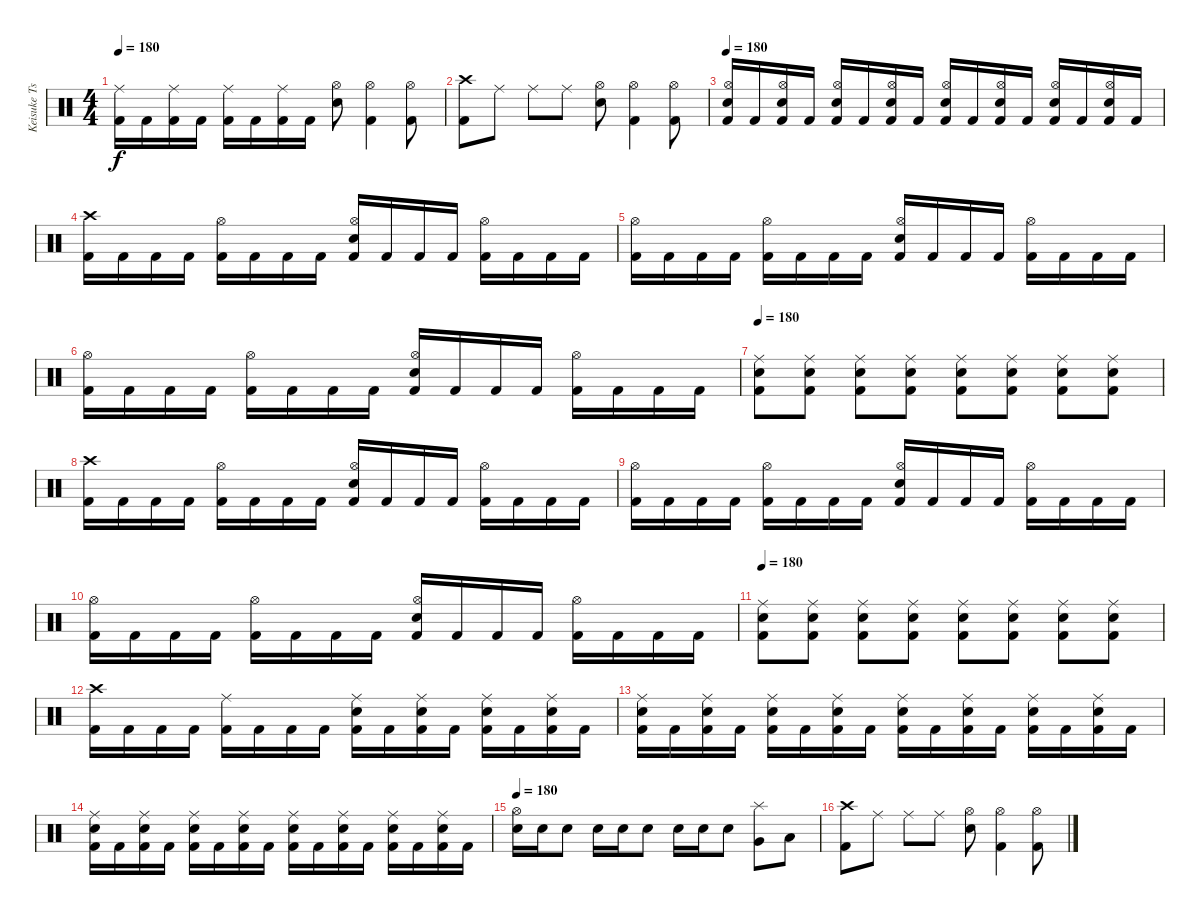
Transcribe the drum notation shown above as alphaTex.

\track ("Keisuke Tsuboi" "Keisuke Ts") {instrument percussion}
\staff {score}
\articulation defaults
\ts (4 4)
\tempo 180
\clef neutral
\ks c
("Ride (middle)" "Kick (hit) 2").16{dy f} "Kick (hit) 2".16 ("Ride (middle)" "Kick (hit) 2").16 "Kick (hit) 2".16 ("Ride (middle)" "Kick (hit) 2").16 "Kick (hit) 2".16 ("Ride (middle)" "Kick (hit) 2").16 "Kick (hit) 2".16 ("Hi-Hat (open)" "Electric Snare (hit)").8 ("Hi-Hat (open)" "Kick (hit) 2").4 ("Hi-Hat (open)" "Kick (hit) 2").8 |
("Crash high (hit)" "Kick (hit) 2").8 "Ride (middle)".8 "Ride (middle)".8 "Ride (middle)".8 ("Hi-Hat (open)" "Electric Snare (hit)").8 ("Hi-Hat (open)" "Kick (hit) 2").4 ("Hi-Hat (open)" "Kick (hit) 2").8 |
\tempo 180
("Hi-Hat (open)" "Electric Snare (hit)" "Kick (hit) 2").16 "Kick (hit) 2".16 ("Hi-Hat (open)" "Electric Snare (hit)" "Kick (hit) 2").16 "Kick (hit) 2".16 ("Hi-Hat (open)" "Electric Snare (hit)" "Kick (hit) 2").16 "Kick (hit) 2".16 ("Hi-Hat (open)" "Electric Snare (hit)" "Kick (hit) 2").16 "Kick (hit) 2".16 ("Hi-Hat (open)" "Electric Snare (hit)" "Kick (hit) 2").16 "Kick (hit) 2".16 ("Hi-Hat (open)" "Electric Snare (hit)" "Kick (hit) 2").16 "Kick (hit) 2".16 ("Hi-Hat (open)" "Electric Snare (hit)" "Kick (hit) 2").16 "Kick (hit) 2".16 ("Hi-Hat (open)" "Electric Snare (hit)" "Kick (hit) 2").16 "Kick (hit) 2".16 |
("Crash high (hit)" "Kick (hit) 2").16 "Kick (hit) 2".16 "Kick (hit) 2".16 "Kick (hit) 2".16 ("Hi-Hat (open)" "Kick (hit) 2").16 "Kick (hit) 2".16 "Kick (hit) 2".16 "Kick (hit) 2".16 ("Hi-Hat (open)" "Electric Snare (hit)" "Kick (hit) 2").16 "Kick (hit) 2".16 "Kick (hit) 2".16 "Kick (hit) 2".16 ("Hi-Hat (open)" "Kick (hit) 2").16 "Kick (hit) 2".16 "Kick (hit) 2".16 "Kick (hit) 2".16 |
("Hi-Hat (open)" "Kick (hit) 2").16 "Kick (hit) 2".16 "Kick (hit) 2".16 "Kick (hit) 2".16 ("Hi-Hat (open)" "Kick (hit) 2").16 "Kick (hit) 2".16 "Kick (hit) 2".16 "Kick (hit) 2".16 ("Hi-Hat (open)" "Electric Snare (hit)" "Kick (hit) 2").16 "Kick (hit) 2".16 "Kick (hit) 2".16 "Kick (hit) 2".16 ("Hi-Hat (open)" "Kick (hit) 2").16 "Kick (hit) 2".16 "Kick (hit) 2".16 "Kick (hit) 2".16 |
("Hi-Hat (open)" "Kick (hit) 2").16 "Kick (hit) 2".16 "Kick (hit) 2".16 "Kick (hit) 2".16 ("Hi-Hat (open)" "Kick (hit) 2").16 "Kick (hit) 2".16 "Kick (hit) 2".16 "Kick (hit) 2".16 ("Hi-Hat (open)" "Electric Snare (hit)" "Kick (hit) 2").16 "Kick (hit) 2".16 "Kick (hit) 2".16 "Kick (hit) 2".16 ("Hi-Hat (open)" "Kick (hit) 2").16 "Kick (hit) 2".16 "Kick (hit) 2".16 "Kick (hit) 2".16 |
\tempo 180
("Ride (middle)" "Electric Snare (hit)" "Kick (hit) 2").8 ("Ride (middle)" "Electric Snare (hit)" "Kick (hit) 2").8 ("Ride (middle)" "Electric Snare (hit)" "Kick (hit) 2").8 ("Ride (middle)" "Electric Snare (hit)" "Kick (hit) 2").8 ("Ride (middle)" "Electric Snare (hit)" "Kick (hit) 2").8 ("Ride (middle)" "Electric Snare (hit)" "Kick (hit) 2").8 ("Ride (middle)" "Electric Snare (hit)" "Kick (hit) 2").8 ("Ride (middle)" "Electric Snare (hit)" "Kick (hit) 2").8 |
("Crash high (hit)" "Kick (hit) 2").16 "Kick (hit) 2".16 "Kick (hit) 2".16 "Kick (hit) 2".16 ("Hi-Hat (open)" "Kick (hit) 2").16 "Kick (hit) 2".16 "Kick (hit) 2".16 "Kick (hit) 2".16 ("Hi-Hat (open)" "Electric Snare (hit)" "Kick (hit) 2").16 "Kick (hit) 2".16 "Kick (hit) 2".16 "Kick (hit) 2".16 ("Hi-Hat (open)" "Kick (hit) 2").16 "Kick (hit) 2".16 "Kick (hit) 2".16 "Kick (hit) 2".16 |
("Hi-Hat (open)" "Kick (hit) 2").16 "Kick (hit) 2".16 "Kick (hit) 2".16 "Kick (hit) 2".16 ("Hi-Hat (open)" "Kick (hit) 2").16 "Kick (hit) 2".16 "Kick (hit) 2".16 "Kick (hit) 2".16 ("Hi-Hat (open)" "Electric Snare (hit)" "Kick (hit) 2").16 "Kick (hit) 2".16 "Kick (hit) 2".16 "Kick (hit) 2".16 ("Hi-Hat (open)" "Kick (hit) 2").16 "Kick (hit) 2".16 "Kick (hit) 2".16 "Kick (hit) 2".16 |
("Hi-Hat (open)" "Kick (hit) 2").16 "Kick (hit) 2".16 "Kick (hit) 2".16 "Kick (hit) 2".16 ("Hi-Hat (open)" "Kick (hit) 2").16 "Kick (hit) 2".16 "Kick (hit) 2".16 "Kick (hit) 2".16 ("Hi-Hat (open)" "Electric Snare (hit)" "Kick (hit) 2").16 "Kick (hit) 2".16 "Kick (hit) 2".16 "Kick (hit) 2".16 ("Hi-Hat (open)" "Kick (hit) 2").16 "Kick (hit) 2".16 "Kick (hit) 2".16 "Kick (hit) 2".16 |
\tempo 180
("Ride (middle)" "Electric Snare (hit)" "Kick (hit) 2").8 ("Ride (middle)" "Electric Snare (hit)" "Kick (hit) 2").8 ("Ride (middle)" "Electric Snare (hit)" "Kick (hit) 2").8 ("Ride (middle)" "Electric Snare (hit)" "Kick (hit) 2").8 ("Ride (middle)" "Electric Snare (hit)" "Kick (hit) 2").8 ("Ride (middle)" "Electric Snare (hit)" "Kick (hit) 2").8 ("Ride (middle)" "Electric Snare (hit)" "Kick (hit) 2").8 ("Ride (middle)" "Electric Snare (hit)" "Kick (hit) 2").8 |
("Crash high (hit)" "Kick (hit) 2").16 "Kick (hit) 2".16 "Kick (hit) 2".16 "Kick (hit) 2".16 ("Ride (middle)" "Kick (hit) 2").16 "Kick (hit) 2".16 "Kick (hit) 2".16 "Kick (hit) 2".16 ("Ride (middle)" "Electric Snare (hit)" "Kick (hit) 2").16 "Kick (hit) 2".16 ("Ride (middle)" "Electric Snare (hit)" "Kick (hit) 2").16 "Kick (hit) 2".16 ("Ride (middle)" "Electric Snare (hit)" "Kick (hit) 2").16 "Kick (hit) 2".16 ("Ride (middle)" "Electric Snare (hit)" "Kick (hit) 2").16 "Kick (hit) 2".16 |
("Ride (middle)" "Electric Snare (hit)" "Kick (hit) 2").16 "Kick (hit) 2".16 ("Ride (middle)" "Electric Snare (hit)" "Kick (hit) 2").16 "Kick (hit) 2".16 ("Ride (middle)" "Electric Snare (hit)" "Kick (hit) 2").16 "Kick (hit) 2".16 ("Ride (middle)" "Electric Snare (hit)" "Kick (hit) 2").16 "Kick (hit) 2".16 ("Ride (middle)" "Electric Snare (hit)" "Kick (hit) 2").16 "Kick (hit) 2".16 ("Ride (middle)" "Electric Snare (hit)" "Kick (hit) 2").16 "Kick (hit) 2".16 ("Ride (middle)" "Electric Snare (hit)" "Kick (hit) 2").16 "Kick (hit) 2".16 ("Ride (middle)" "Electric Snare (hit)" "Kick (hit) 2").16 "Kick (hit) 2".16 |
("Ride (middle)" "Electric Snare (hit)" "Kick (hit) 2").16 "Kick (hit) 2".16 ("Ride (middle)" "Electric Snare (hit)" "Kick (hit) 2").16 "Kick (hit) 2".16 ("Ride (middle)" "Electric Snare (hit)" "Kick (hit) 2").16 "Kick (hit) 2".16 ("Ride (middle)" "Electric Snare (hit)" "Kick (hit) 2").16 "Kick (hit) 2".16 ("Ride (middle)" "Electric Snare (hit)" "Kick (hit) 2").16 "Kick (hit) 2".16 ("Ride (middle)" "Electric Snare (hit)" "Kick (hit) 2").16 "Kick (hit) 2".16 ("Ride (middle)" "Electric Snare (hit)" "Kick (hit) 2").16 "Kick (hit) 2".16 ("Ride (middle)" "Electric Snare (hit)" "Kick (hit) 2").16 "Kick (hit) 2".16 |
\tempo 180
("Hi-Hat (open)" "Electric Snare (hit)").16 "Electric Snare (hit)".16 "Electric Snare (hit)".8 "Electric Snare (hit)".16 "Electric Snare (hit)".16 "Electric Snare (hit)".8 "Electric Snare (hit)".16 "Electric Snare (hit)".16 "Electric Snare (hit)".8 ("Splash (hit)" "Very Low Tom (hit)").8 "Low Floor Tom (hit)".8 |
("Crash high (hit)" "Kick (hit) 2").8{volume 15} "Ride (middle)".8 "Ride (middle)".8 "Ride (middle)".8 ("Hi-Hat (open)" "Electric Snare (hit)").8 ("Hi-Hat (open)" "Kick (hit) 2").4 ("Hi-Hat (open)" "Kick (hit) 2").8
